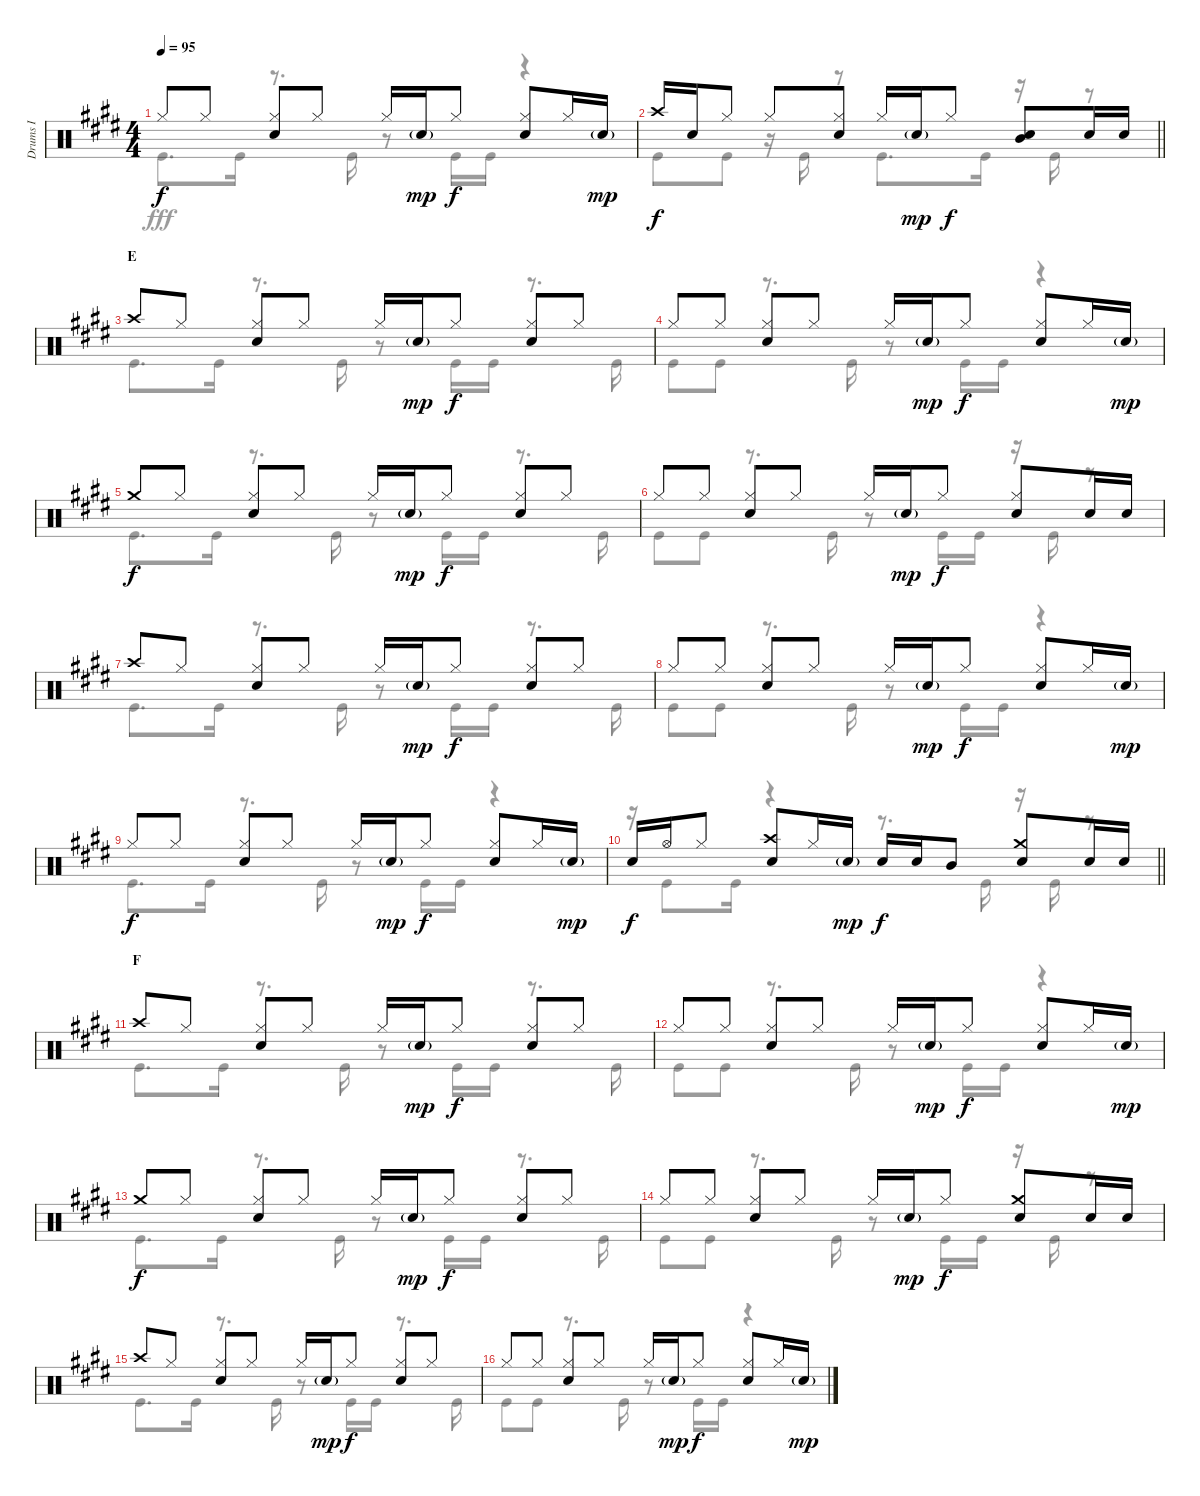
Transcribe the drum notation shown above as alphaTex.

\track ("Drums I" "Drums I") {instrument percussion}
\staff {score}
\articulation defaults
\voice
\ts (4 4)
\tempo 95
\clef neutral
\ks e "Hi-Hat (closed)".8{dy f} "Hi-Hat (closed)".8
("Hi-Hat (closed)" "Snare (hit) 2").8 "Hi-Hat (closed)".8 "Hi-Hat (closed)".16 "Snare (hit) 2"{g}.16{dy mp} "Hi-Hat (closed)".8{dy f} ("Hi-Hat (closed)" "Snare (hit) 2").8 "Hi-Hat (closed)".16 "Snare (hit) 2"{g}.16{dy mp} |
\barLineRight lightlight "Crash high (hit)".16{dy f} "Snare (hit) 2".16 "Hi-Hat (closed)".8 "Hi-Hat (closed)".8
("Hi-Hat (closed)" "Snare (hit) 2").8 "Hi-Hat (closed)".16 "Snare (hit) 2"{g}.16{dy mp} "Hi-Hat (closed)".8{dy f} ("Mid Tom (hit)" "Snare (hit) 2").8 "Snare (hit) 2".16 "Snare (hit) 2".16 |
\section ("" "E")
"Crash high (hit)".8 "Hi-Hat (closed)".8 ("Hi-Hat (closed)" "Snare (hit) 2").8 "Hi-Hat (closed)".8 "Hi-Hat (closed)".16 "Snare (hit) 2"{g}.16{dy mp} "Hi-Hat (closed)".8{dy f} ("Hi-Hat (closed)" "Snare (hit) 2").8 "Hi-Hat (closed)".8 |
"Hi-Hat (closed)".8 "Hi-Hat (closed)".8 ("Hi-Hat (closed)" "Snare (hit) 2").8 "Hi-Hat (closed)".8 "Hi-Hat (closed)".16 "Snare (hit) 2"{g}.16{dy mp} "Hi-Hat (closed)".8{dy f} ("Hi-Hat (closed)" "Snare (hit) 2").8 "Hi-Hat (closed)".16 "Snare (hit) 2"{g}.16{dy mp} |
"Crash medium (hit)".8{dy f} "Hi-Hat (closed)".8 ("Hi-Hat (closed)" "Snare (hit) 2").8 "Hi-Hat (closed)".8 "Hi-Hat (closed)".16 "Snare (hit) 2"{g}.16{dy mp} "Hi-Hat (closed)".8{dy f} ("Hi-Hat (closed)" "Snare (hit) 2").8 "Hi-Hat (closed)".8 |
"Hi-Hat (closed)".8 "Hi-Hat (closed)".8 ("Hi-Hat (closed)" "Snare (hit) 2").8 "Hi-Hat (closed)".8 "Hi-Hat (closed)".16 "Snare (hit) 2"{g}.16{dy mp} "Hi-Hat (closed)".8{dy f} ("Hi-Hat (closed)" "Snare (hit) 2").8 "Snare (hit) 2".16 "Snare (hit) 2".16 |
"Crash high (hit)".8 "Hi-Hat (closed)".8 ("Hi-Hat (closed)" "Snare (hit) 2").8 "Hi-Hat (closed)".8 "Hi-Hat (closed)".16 "Snare (hit) 2"{g}.16{dy mp} "Hi-Hat (closed)".8{dy f} ("Hi-Hat (closed)" "Snare (hit) 2").8 "Hi-Hat (closed)".8 |
"Hi-Hat (closed)".8 "Hi-Hat (closed)".8 ("Hi-Hat (closed)" "Snare (hit) 2").8 "Hi-Hat (closed)".8 "Hi-Hat (closed)".16 "Snare (hit) 2"{g}.16{dy mp} "Hi-Hat (closed)".8{dy f} ("Hi-Hat (closed)" "Snare (hit) 2").8 "Hi-Hat (closed)".16 "Snare (hit) 2"{g}.16{dy mp} |
"Hi-Hat (closed)".8{dy f} "Hi-Hat (closed)".8 ("Hi-Hat (closed)" "Snare (hit) 2").8 "Hi-Hat (closed)".8 "Hi-Hat (closed)".16 "Snare (hit) 2"{g}.16{dy mp} "Hi-Hat (closed)".8{dy f} ("Hi-Hat (closed)" "Snare (hit) 2").8 "Hi-Hat (closed)".16 "Snare (hit) 2"{g}.16{dy mp} |
\barLineRight lightlight "Snare (hit) 2".16{dy f} "Hi-Hat (open)".16 "Hi-Hat (closed)".8
("Crash high (hit)" "Snare (hit) 2").8 "Hi-Hat (closed)".16 "Snare (hit) 2"{g}.16{dy mp} "Snare (hit) 2".16{dy f} "Snare (hit) 2".16 "Mid Tom (hit)".8 ("Crash medium (hit)" "Snare (hit) 2").8 "Snare (hit) 2".16 "Snare (hit) 2".16 |
\section ("" "F")
"Crash high (hit)".8 "Hi-Hat (closed)".8 ("Hi-Hat (closed)" "Snare (hit) 2").8 "Hi-Hat (closed)".8 "Hi-Hat (closed)".16 "Snare (hit) 2"{g}.16{dy mp} "Hi-Hat (closed)".8{dy f} ("Hi-Hat (closed)" "Snare (hit) 2").8 "Hi-Hat (closed)".8 |
"Hi-Hat (closed)".8 "Hi-Hat (closed)".8 ("Hi-Hat (closed)" "Snare (hit) 2").8 "Hi-Hat (closed)".8 "Hi-Hat (closed)".16 "Snare (hit) 2"{g}.16{dy mp} "Hi-Hat (closed)".8{dy f} ("Hi-Hat (closed)" "Snare (hit) 2").8 "Hi-Hat (closed)".16 "Snare (hit) 2"{g}.16{dy mp} |
"Crash medium (hit)".8{dy f} "Hi-Hat (closed)".8 ("Hi-Hat (closed)" "Snare (hit) 2").8 "Hi-Hat (closed)".8 "Hi-Hat (closed)".16 "Snare (hit) 2"{g}.16{dy mp} "Hi-Hat (closed)".8{dy f} ("Hi-Hat (closed)" "Snare (hit) 2").8 "Hi-Hat (closed)".8 |
"Hi-Hat (closed)".8 "Hi-Hat (closed)".8 ("Hi-Hat (closed)" "Snare (hit) 2").8 "Hi-Hat (closed)".8 "Hi-Hat (closed)".16 "Snare (hit) 2"{g}.16{dy mp} "Hi-Hat (closed)".8{dy f} ("Crash medium (hit)" "Snare (hit) 2").8 "Snare (hit) 2".16 "Snare (hit) 2".16 |
"Crash high (hit)".8 "Hi-Hat (closed)".8 ("Hi-Hat (closed)" "Snare (hit) 2").8 "Hi-Hat (closed)".8 "Hi-Hat (closed)".16 "Snare (hit) 2"{g}.16{dy mp} "Hi-Hat (closed)".8{dy f} ("Hi-Hat (closed)" "Snare (hit) 2").8 "Hi-Hat (closed)".8 |
"Hi-Hat (closed)".8 "Hi-Hat (closed)".8 ("Hi-Hat (closed)" "Snare (hit) 2").8 "Hi-Hat (closed)".8 "Hi-Hat (closed)".16 "Snare (hit) 2"{g}.16{dy mp} "Hi-Hat (closed)".8{dy f} ("Hi-Hat (closed)" "Snare (hit) 2").8 "Hi-Hat (closed)".16 "Snare (hit) 2"{g}.16{dy mp}
\voice
\clef neutral
\ottava regular
\simile none
\ks e "Kick (hit)".8{d dy fff} "Kick (hit)".16
r.8{d} "Kick (hit)".16 r.8 "Kick (hit)".16 "Kick (hit)".16 r.4 |
\barLineRight lightlight "Kick (hit)".8 "Kick (hit)".8
r.16 "Kick (hit)".16 r.8 "Kick (hit)".8{d} "Kick (hit)".16 r.16 "Kick (hit)".16 r.8 |
"Kick (hit)".8{d} "Kick (hit)".16 r.8{d} "Kick (hit)".16 r.8 "Kick (hit)".16 "Kick (hit)".16 r.8{d} "Kick (hit)".16 |
"Kick (hit)".8 "Kick (hit)".8 r.8{d} "Kick (hit)".16 r.8 "Kick (hit)".16 "Kick (hit)".16 r.4 |
"Kick (hit)".8{d} "Kick (hit)".16 r.8{d} "Kick (hit)".16 r.8 "Kick (hit)".16 "Kick (hit)".16 r.8{d} "Kick (hit)".16 |
"Kick (hit)".8 "Kick (hit)".8 r.8{d} "Kick (hit)".16 r.8 "Kick (hit)".16 "Kick (hit)".16 r.16 "Kick (hit)".16 r.8 |
"Kick (hit)".8{d} "Kick (hit)".16 r.8{d} "Kick (hit)".16 r.8 "Kick (hit)".16 "Kick (hit)".16 r.8{d} "Kick (hit)".16 |
"Kick (hit)".8 "Kick (hit)".8 r.8{d} "Kick (hit)".16 r.8 "Kick (hit)".16 "Kick (hit)".16 r.4 |
"Kick (hit)".8{d} "Kick (hit)".16 r.8{d} "Kick (hit)".16 r.8 "Kick (hit)".16 "Kick (hit)".16 r.4 |
\barLineRight lightlight
r.16 "Kick (hit)".8 "Kick (hit)".16 r.4 r.8{d} "Kick (hit)".16 r.16 "Kick (hit)".16 r.8 |
"Kick (hit)".8{d} "Kick (hit)".16 r.8{d} "Kick (hit)".16 r.8 "Kick (hit)".16 "Kick (hit)".16 r.8{d} "Kick (hit)".16 |
"Kick (hit)".8 "Kick (hit)".8 r.8{d} "Kick (hit)".16 r.8 "Kick (hit)".16 "Kick (hit)".16 r.4 |
"Kick (hit)".8{d} "Kick (hit)".16 r.8{d} "Kick (hit)".16 r.8 "Kick (hit)".16 "Kick (hit)".16 r.8{d} "Kick (hit)".16 |
"Kick (hit)".8 "Kick (hit)".8 r.8{d} "Kick (hit)".16 r.8 "Kick (hit)".16 "Kick (hit)".16 r.16 "Kick (hit)".16 r.8 |
"Kick (hit)".8{d} "Kick (hit)".16 r.8{d} "Kick (hit)".16 r.8 "Kick (hit)".16 "Kick (hit)".16 r.8{d} "Kick (hit)".16 |
"Kick (hit)".8 "Kick (hit)".8 r.8{d} "Kick (hit)".16 r.8 "Kick (hit)".16 "Kick (hit)".16 r.4
